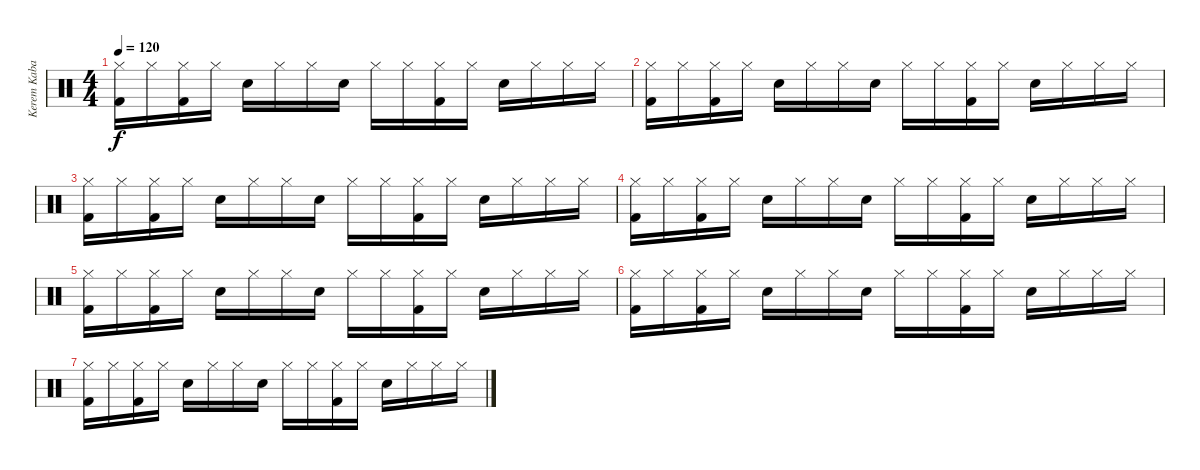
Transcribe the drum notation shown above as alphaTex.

\track ("Kerem Kabadayı" "Kerem Kaba") {instrument percussion}
\staff {score}
\articulation defaults
\ts (4 4)
\tempo 120
\clef neutral
\ks c
("Hi-Hat (closed)" "Kick (hit) 2").16{dy f} "Hi-Hat (closed)".16 ("Hi-Hat (closed)" "Kick (hit) 2").16 "Hi-Hat (closed)".16 "Electric Snare (hit)".16 "Hi-Hat (closed)".16 "Hi-Hat (closed)".16 "Electric Snare (hit)".16 "Hi-Hat (closed)".16 "Hi-Hat (closed)".16 ("Hi-Hat (closed)" "Kick (hit) 2").16 "Hi-Hat (closed)".16 "Electric Snare (hit)".16 "Hi-Hat (closed)".16 "Hi-Hat (closed)".16 "Hi-Hat (closed)".16 |
("Hi-Hat (closed)" "Kick (hit) 2").16 "Hi-Hat (closed)".16 ("Hi-Hat (closed)" "Kick (hit) 2").16 "Hi-Hat (closed)".16 "Electric Snare (hit)".16 "Hi-Hat (closed)".16 "Hi-Hat (closed)".16 "Electric Snare (hit)".16 "Hi-Hat (closed)".16 "Hi-Hat (closed)".16 ("Hi-Hat (closed)" "Kick (hit) 2").16 "Hi-Hat (closed)".16 "Electric Snare (hit)".16 "Hi-Hat (closed)".16 "Hi-Hat (closed)".16 "Hi-Hat (closed)".16 |
("Hi-Hat (closed)" "Kick (hit) 2").16 "Hi-Hat (closed)".16 ("Hi-Hat (closed)" "Kick (hit) 2").16 "Hi-Hat (closed)".16 "Electric Snare (hit)".16 "Hi-Hat (closed)".16 "Hi-Hat (closed)".16 "Electric Snare (hit)".16 "Hi-Hat (closed)".16 "Hi-Hat (closed)".16 ("Hi-Hat (closed)" "Kick (hit) 2").16 "Hi-Hat (closed)".16 "Electric Snare (hit)".16 "Hi-Hat (closed)".16 "Hi-Hat (closed)".16 "Hi-Hat (closed)".16 |
("Hi-Hat (closed)" "Kick (hit) 2").16 "Hi-Hat (closed)".16 ("Hi-Hat (closed)" "Kick (hit) 2").16 "Hi-Hat (closed)".16 "Electric Snare (hit)".16 "Hi-Hat (closed)".16 "Hi-Hat (closed)".16 "Electric Snare (hit)".16 "Hi-Hat (closed)".16 "Hi-Hat (closed)".16 ("Hi-Hat (closed)" "Kick (hit) 2").16 "Hi-Hat (closed)".16 "Electric Snare (hit)".16 "Hi-Hat (closed)".16 "Hi-Hat (closed)".16 "Hi-Hat (closed)".16 |
("Hi-Hat (closed)" "Kick (hit) 2").16 "Hi-Hat (closed)".16 ("Hi-Hat (closed)" "Kick (hit) 2").16 "Hi-Hat (closed)".16 "Electric Snare (hit)".16 "Hi-Hat (closed)".16 "Hi-Hat (closed)".16 "Electric Snare (hit)".16 "Hi-Hat (closed)".16 "Hi-Hat (closed)".16 ("Hi-Hat (closed)" "Kick (hit) 2").16 "Hi-Hat (closed)".16 "Electric Snare (hit)".16 "Hi-Hat (closed)".16 "Hi-Hat (closed)".16 "Hi-Hat (closed)".16 |
("Hi-Hat (closed)" "Kick (hit) 2").16 "Hi-Hat (closed)".16 ("Hi-Hat (closed)" "Kick (hit) 2").16 "Hi-Hat (closed)".16 "Electric Snare (hit)".16 "Hi-Hat (closed)".16 "Hi-Hat (closed)".16 "Electric Snare (hit)".16 "Hi-Hat (closed)".16 "Hi-Hat (closed)".16 ("Hi-Hat (closed)" "Kick (hit) 2").16 "Hi-Hat (closed)".16 "Electric Snare (hit)".16 "Hi-Hat (closed)".16 "Hi-Hat (closed)".16 "Hi-Hat (closed)".16 |
("Hi-Hat (closed)" "Kick (hit) 2").16 "Hi-Hat (closed)".16 ("Hi-Hat (closed)" "Kick (hit) 2").16 "Hi-Hat (closed)".16 "Electric Snare (hit)".16 "Hi-Hat (closed)".16 "Hi-Hat (closed)".16 "Electric Snare (hit)".16 "Hi-Hat (closed)".16 "Hi-Hat (closed)".16 ("Hi-Hat (closed)" "Kick (hit) 2").16 "Hi-Hat (closed)".16 "Electric Snare (hit)".16 "Hi-Hat (closed)".16 "Hi-Hat (closed)".16 "Hi-Hat (closed)".16
